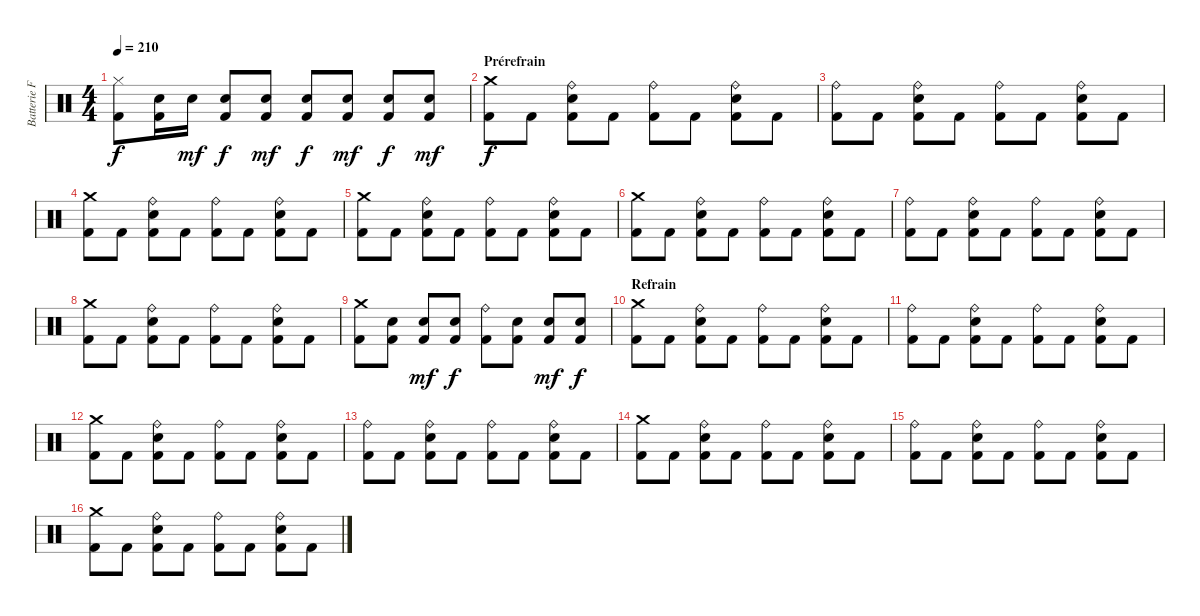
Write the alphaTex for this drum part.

\track ("Batterie Franck" "Batterie F") {instrument percussion}
\staff {score}
\articulation defaults
\ts (4 4)
\tempo 210
\clef neutral
\ks c
("Hi-Hat (closed)" "Kick (hit) 2").8{dy f} ("Snare (hit) 2" "Kick (hit) 2").16 "Snare (hit) 2".16{dy mf} ("Snare (hit) 2" "Kick (hit) 2").8{dy f} ("Snare (hit) 2" "Kick (hit) 2").8{dy mf} ("Snare (hit) 2" "Kick (hit) 2").8{dy f} ("Snare (hit) 2" "Kick (hit) 2").8{dy mf} ("Snare (hit) 2" "Kick (hit) 2").8{dy f} ("Snare (hit) 2" "Kick (hit) 2").8{dy mf} |
\section ("" "Prérefrain")
("Crash medium (hit)" "Kick (hit) 2").8{dy f} "Kick (hit) 2".8 ("Ride (bell)" "Snare (hit) 2" "Kick (hit) 2").8 "Kick (hit) 2".8 ("Ride (bell)" "Kick (hit) 2").8 "Kick (hit) 2".8 ("Ride (bell)" "Snare (hit) 2" "Kick (hit) 2").8 "Kick (hit) 2".8 |
("Ride (bell)" "Kick (hit) 2").8 "Kick (hit) 2".8 ("Ride (bell)" "Snare (hit) 2" "Kick (hit) 2").8 "Kick (hit) 2".8 ("Ride (bell)" "Kick (hit) 2").8 "Kick (hit) 2".8 ("Ride (bell)" "Snare (hit) 2" "Kick (hit) 2").8 "Kick (hit) 2".8 |
("Crash medium (hit)" "Kick (hit) 2").8 "Kick (hit) 2".8 ("Ride (bell)" "Snare (hit) 2" "Kick (hit) 2").8 "Kick (hit) 2".8 ("Ride (bell)" "Kick (hit) 2").8 "Kick (hit) 2".8 ("Ride (bell)" "Snare (hit) 2" "Kick (hit) 2").8 "Kick (hit) 2".8 |
("Crash medium (hit)" "Kick (hit) 2").8 "Kick (hit) 2".8 ("Ride (bell)" "Snare (hit) 2" "Kick (hit) 2").8 "Kick (hit) 2".8 ("Ride (bell)" "Kick (hit) 2").8 "Kick (hit) 2".8 ("Ride (bell)" "Snare (hit) 2" "Kick (hit) 2").8 "Kick (hit) 2".8 |
("Crash medium (hit)" "Kick (hit) 2").8 "Kick (hit) 2".8 ("Ride (bell)" "Snare (hit) 2" "Kick (hit) 2").8 "Kick (hit) 2".8 ("Ride (bell)" "Kick (hit) 2").8 "Kick (hit) 2".8 ("Ride (bell)" "Snare (hit) 2" "Kick (hit) 2").8 "Kick (hit) 2".8 |
("Ride (bell)" "Kick (hit) 2").8 "Kick (hit) 2".8 ("Ride (bell)" "Snare (hit) 2" "Kick (hit) 2").8 "Kick (hit) 2".8 ("Ride (bell)" "Kick (hit) 2").8 "Kick (hit) 2".8 ("Ride (bell)" "Snare (hit) 2" "Kick (hit) 2").8 "Kick (hit) 2".8 |
("Crash medium (hit)" "Kick (hit) 2").8 "Kick (hit) 2".8 ("Ride (bell)" "Snare (hit) 2" "Kick (hit) 2").8 "Kick (hit) 2".8 ("Ride (bell)" "Kick (hit) 2").8 "Kick (hit) 2".8 ("Ride (bell)" "Snare (hit) 2" "Kick (hit) 2").8 "Kick (hit) 2".8 |
("Crash medium (hit)" "Kick (hit) 2").8 ("Snare (hit) 2" "Kick (hit) 2").8 ("Snare (hit) 2" "Kick (hit) 2").8{dy mf} ("Snare (hit) 2" "Kick (hit) 2").8{dy f} ("Ride (bell)" "Kick (hit) 2").8 ("Snare (hit) 2" "Kick (hit) 2").8 ("Snare (hit) 2" "Kick (hit) 2").8{dy mf} ("Snare (hit) 2" "Kick (hit) 2").8{dy f} |
\section ("" "Refrain")
("Crash medium (hit)" "Kick (hit) 2").8 "Kick (hit) 2".8 ("Ride (bell)" "Snare (hit) 2" "Kick (hit) 2").8 "Kick (hit) 2".8 ("Ride (bell)" "Kick (hit) 2").8 "Kick (hit) 2".8 ("Ride (bell)" "Snare (hit) 2" "Kick (hit) 2").8 "Kick (hit) 2".8 |
("Ride (bell)" "Kick (hit) 2").8 "Kick (hit) 2".8 ("Ride (bell)" "Snare (hit) 2" "Kick (hit) 2").8 "Kick (hit) 2".8 ("Ride (bell)" "Kick (hit) 2").8 "Kick (hit) 2".8 ("Ride (bell)" "Snare (hit) 2" "Kick (hit) 2").8 "Kick (hit) 2".8 |
("Crash medium (hit)" "Kick (hit) 2").8 "Kick (hit) 2".8 ("Ride (bell)" "Snare (hit) 2" "Kick (hit) 2").8 "Kick (hit) 2".8 ("Ride (bell)" "Kick (hit) 2").8 "Kick (hit) 2".8 ("Ride (bell)" "Snare (hit) 2" "Kick (hit) 2").8 "Kick (hit) 2".8 |
("Ride (bell)" "Kick (hit) 2").8 "Kick (hit) 2".8 ("Ride (bell)" "Snare (hit) 2" "Kick (hit) 2").8 "Kick (hit) 2".8 ("Ride (bell)" "Kick (hit) 2").8 "Kick (hit) 2".8 ("Ride (bell)" "Snare (hit) 2" "Kick (hit) 2").8 "Kick (hit) 2".8 |
("Crash medium (hit)" "Kick (hit) 2").8 "Kick (hit) 2".8 ("Ride (bell)" "Snare (hit) 2" "Kick (hit) 2").8 "Kick (hit) 2".8 ("Ride (bell)" "Kick (hit) 2").8 "Kick (hit) 2".8 ("Ride (bell)" "Snare (hit) 2" "Kick (hit) 2").8 "Kick (hit) 2".8 |
("Ride (bell)" "Kick (hit) 2").8 "Kick (hit) 2".8 ("Ride (bell)" "Snare (hit) 2" "Kick (hit) 2").8 "Kick (hit) 2".8 ("Ride (bell)" "Kick (hit) 2").8 "Kick (hit) 2".8 ("Ride (bell)" "Snare (hit) 2" "Kick (hit) 2").8 "Kick (hit) 2".8 |
("Crash medium (hit)" "Kick (hit) 2").8 "Kick (hit) 2".8 ("Ride (bell)" "Snare (hit) 2" "Kick (hit) 2").8 "Kick (hit) 2".8 ("Ride (bell)" "Kick (hit) 2").8 "Kick (hit) 2".8 ("Ride (bell)" "Snare (hit) 2" "Kick (hit) 2").8 "Kick (hit) 2".8
